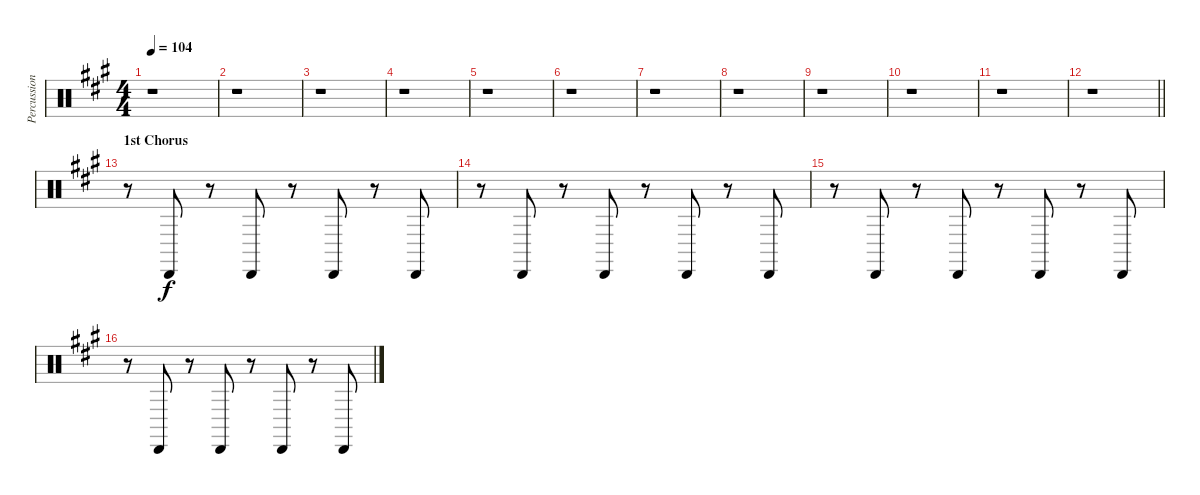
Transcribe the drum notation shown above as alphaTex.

\track ("Percussion" "Percussion") {instrument percussion}
\staff {score}
\articulation defaults
\ts (4 4)
\tempo 104
\clef neutral
\ks a
r.1{dy f} |
r.1 |
r.1 |
r.1 |
r.1 |
r.1 |
r.1 |
r.1 |
r.1 |
r.1 |
r.1 |
\barLineRight lightlight
r.1 |
\section ("" "1st Chorus")
r.8 "Cabasa (hit)".8 r.8 "Cabasa (hit)".8 r.8 "Cabasa (hit)".8 r.8 "Cabasa (hit)".8 |
r.8 "Cabasa (hit)".8 r.8 "Cabasa (hit)".8 r.8 "Cabasa (hit)".8 r.8 "Cabasa (hit)".8 |
r.8 "Cabasa (hit)".8 r.8 "Cabasa (hit)".8 r.8 "Cabasa (hit)".8 r.8 "Cabasa (hit)".8 |
r.8 "Cabasa (hit)".8 r.8 "Cabasa (hit)".8 r.8 "Cabasa (hit)".8 r.8 "Cabasa (hit)".8
